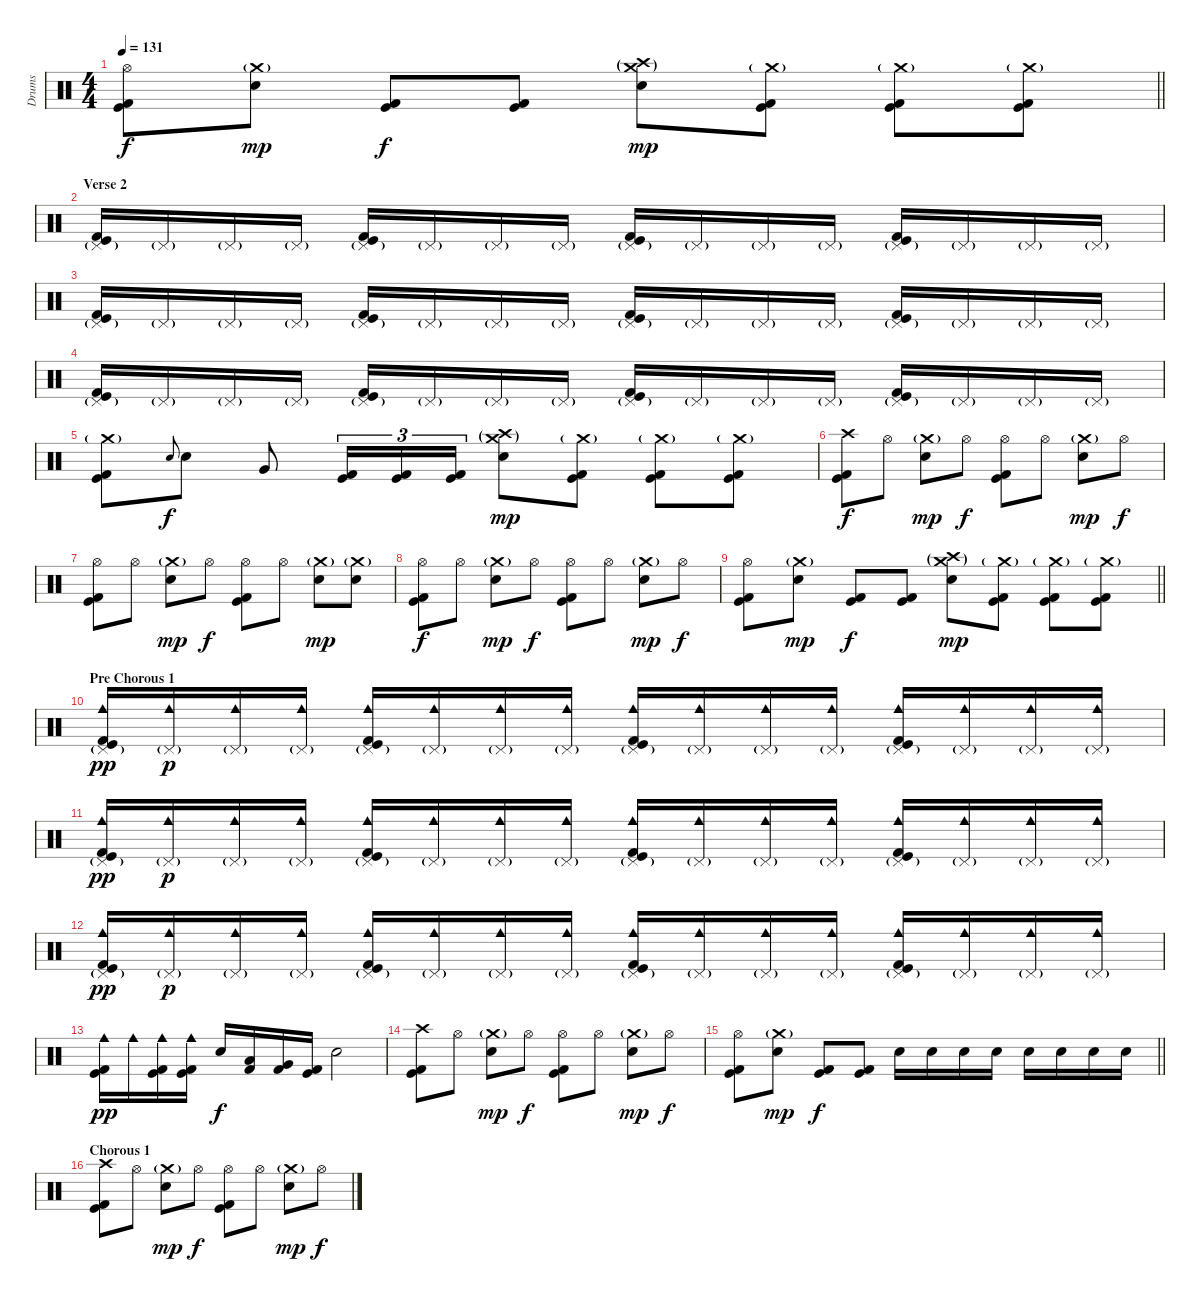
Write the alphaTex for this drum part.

\track ("Drums" "Drums") {instrument percussion}
\staff {score}
\articulation defaults
\ts (4 4)
\tempo 131
\clef neutral
\barLineRight lightlight
\ks c
("Hi-Hat (open)" "Kick (hit)" "Kick (hit) 2").8{dy f} ("Crash medium (hit)"{g} "Electric Snare (hit)").8{dy mp} ("Kick (hit)" "Kick (hit) 2").8{dy f} ("Kick (hit)" "Kick (hit) 2").8 ("Crash medium (hit)"{g} "Crash high (hit)"{g} "Electric Snare (hit)").8{dy mp} ("Crash medium (hit)"{g} "Kick (hit)" "Kick (hit) 2").8 ("Crash medium (hit)"{g} "Kick (hit)" "Kick (hit) 2").8 ("Crash medium (hit)"{g} "Kick (hit)" "Kick (hit) 2").8 |
\section ("" "Verse 2")
("Pedal Hi-Hat (hit)"{g} "Kick (hit)" "Kick (hit) 2").16 "Pedal Hi-Hat (hit)"{g}.16 "Pedal Hi-Hat (hit)"{g}.16 "Pedal Hi-Hat (hit)"{g}.16 ("Pedal Hi-Hat (hit)"{g} "Kick (hit)" "Kick (hit) 2").16 "Pedal Hi-Hat (hit)"{g}.16 "Pedal Hi-Hat (hit)"{g}.16 "Pedal Hi-Hat (hit)"{g}.16 ("Pedal Hi-Hat (hit)"{g} "Kick (hit)" "Kick (hit) 2").16 "Pedal Hi-Hat (hit)"{g}.16 "Pedal Hi-Hat (hit)"{g}.16 "Pedal Hi-Hat (hit)"{g}.16 ("Pedal Hi-Hat (hit)"{g} "Kick (hit)" "Kick (hit) 2").16 "Pedal Hi-Hat (hit)"{g}.16 "Pedal Hi-Hat (hit)"{g}.16 "Pedal Hi-Hat (hit)"{g}.16 |
("Pedal Hi-Hat (hit)"{g} "Kick (hit)" "Kick (hit) 2").16 "Pedal Hi-Hat (hit)"{g}.16 "Pedal Hi-Hat (hit)"{g}.16 "Pedal Hi-Hat (hit)"{g}.16 ("Pedal Hi-Hat (hit)"{g} "Kick (hit)" "Kick (hit) 2").16 "Pedal Hi-Hat (hit)"{g}.16 "Pedal Hi-Hat (hit)"{g}.16 "Pedal Hi-Hat (hit)"{g}.16 ("Pedal Hi-Hat (hit)"{g} "Kick (hit)" "Kick (hit) 2").16 "Pedal Hi-Hat (hit)"{g}.16 "Pedal Hi-Hat (hit)"{g}.16 "Pedal Hi-Hat (hit)"{g}.16 ("Pedal Hi-Hat (hit)"{g} "Kick (hit)" "Kick (hit) 2").16 "Pedal Hi-Hat (hit)"{g}.16 "Pedal Hi-Hat (hit)"{g}.16 "Pedal Hi-Hat (hit)"{g}.16 |
("Pedal Hi-Hat (hit)"{g} "Kick (hit)" "Kick (hit) 2").16 "Pedal Hi-Hat (hit)"{g}.16 "Pedal Hi-Hat (hit)"{g}.16 "Pedal Hi-Hat (hit)"{g}.16 ("Pedal Hi-Hat (hit)"{g} "Kick (hit)" "Kick (hit) 2").16 "Pedal Hi-Hat (hit)"{g}.16 "Pedal Hi-Hat (hit)"{g}.16 "Pedal Hi-Hat (hit)"{g}.16 ("Pedal Hi-Hat (hit)"{g} "Kick (hit)" "Kick (hit) 2").16 "Pedal Hi-Hat (hit)"{g}.16 "Pedal Hi-Hat (hit)"{g}.16 "Pedal Hi-Hat (hit)"{g}.16 ("Pedal Hi-Hat (hit)"{g} "Kick (hit)" "Kick (hit) 2").16 "Pedal Hi-Hat (hit)"{g}.16 "Pedal Hi-Hat (hit)"{g}.16 "Pedal Hi-Hat (hit)"{g}.16 |
("Crash medium (hit)"{g} "Kick (hit)" "Kick (hit) 2").8 "Electric Snare (hit)".8{gr onbeat dy f} "Electric Snare (hit)".8 "Very Low Tom (hit)".8 ("Kick (hit)" "Kick (hit) 2").16{tu (3 2)} ("Kick (hit)" "Kick (hit) 2").16{tu (3 2)} ("Kick (hit)" "Kick (hit) 2").16{tu (3 2)} ("Crash medium (hit)"{g} "Crash high (hit)"{g} "Electric Snare (hit)").8{dy mp} ("Crash medium (hit)"{g} "Kick (hit)" "Kick (hit) 2").8 ("Crash medium (hit)"{g} "Kick (hit)" "Kick (hit) 2").8 ("Crash medium (hit)"{g} "Kick (hit)" "Kick (hit) 2").8 |
("Crash high (hit)" "Kick (hit)" "Kick (hit) 2").8{dy f} "Hi-Hat (open)".8 ("Crash medium (hit)"{g} "Electric Snare (hit)").8{dy mp} "Hi-Hat (open)".8{dy f} ("Hi-Hat (open)" "Kick (hit)" "Kick (hit) 2").8 "Hi-Hat (open)".8 ("Crash medium (hit)"{g} "Electric Snare (hit)").8{dy mp} "Hi-Hat (open)".8{dy f} |
("Hi-Hat (open)" "Kick (hit)" "Kick (hit) 2").8 "Hi-Hat (open)".8 ("Crash medium (hit)"{g} "Electric Snare (hit)").8{dy mp} "Hi-Hat (open)".8{dy f} ("Hi-Hat (open)" "Kick (hit)" "Kick (hit) 2").8 "Hi-Hat (open)".8 ("Crash medium (hit)"{g} "Electric Snare (hit)").8{dy mp} ("Crash medium (hit)"{g} "Electric Snare (hit)").8 |
("Hi-Hat (open)" "Kick (hit)" "Kick (hit) 2").8{dy f} "Hi-Hat (open)".8 ("Crash medium (hit)"{g} "Electric Snare (hit)").8{dy mp} "Hi-Hat (open)".8{dy f} ("Hi-Hat (open)" "Kick (hit)" "Kick (hit) 2").8 "Hi-Hat (open)".8 ("Crash medium (hit)"{g} "Electric Snare (hit)").8{dy mp} "Hi-Hat (open)".8{dy f} |
\barLineRight lightlight
("Hi-Hat (open)" "Kick (hit)" "Kick (hit) 2").8 ("Crash medium (hit)"{g} "Electric Snare (hit)").8{dy mp} ("Kick (hit)" "Kick (hit) 2").8{dy f} ("Kick (hit)" "Kick (hit) 2").8 ("Crash medium (hit)"{g} "Crash high (hit)"{g} "Electric Snare (hit)").8{dy mp} ("Crash medium (hit)"{g} "Kick (hit)" "Kick (hit) 2").8 ("Crash medium (hit)"{g} "Kick (hit)" "Kick (hit) 2").8 ("Crash medium (hit)"{g} "Kick (hit)" "Kick (hit) 2").8 |
\section ("" "Pre Chorous 1")
("Pedal Hi-Hat (hit)"{g} "Kick (hit)" "Kick (hit) 2" "Cowbell medium (hit)").16{dy pp} ("Pedal Hi-Hat (hit)"{g} "Cowbell medium (hit)").16{dy p} ("Pedal Hi-Hat (hit)"{g} "Cowbell medium (hit)").16 ("Pedal Hi-Hat (hit)"{g} "Cowbell medium (hit)").16 ("Pedal Hi-Hat (hit)"{g} "Kick (hit)" "Kick (hit) 2" "Cowbell medium (hit)").16 ("Pedal Hi-Hat (hit)"{g} "Cowbell medium (hit)").16 ("Pedal Hi-Hat (hit)"{g} "Cowbell medium (hit)").16 ("Pedal Hi-Hat (hit)"{g} "Cowbell medium (hit)").16 ("Pedal Hi-Hat (hit)"{g} "Kick (hit)" "Kick (hit) 2" "Cowbell medium (hit)").16 ("Pedal Hi-Hat (hit)"{g} "Cowbell medium (hit)").16 ("Pedal Hi-Hat (hit)"{g} "Cowbell medium (hit)").16 ("Pedal Hi-Hat (hit)"{g} "Cowbell medium (hit)").16 ("Pedal Hi-Hat (hit)"{g} "Kick (hit)" "Kick (hit) 2" "Cowbell medium (hit)").16 ("Pedal Hi-Hat (hit)"{g} "Cowbell medium (hit)").16 ("Pedal Hi-Hat (hit)"{g} "Cowbell medium (hit)").16 ("Pedal Hi-Hat (hit)"{g} "Cowbell medium (hit)").16 |
("Pedal Hi-Hat (hit)"{g} "Kick (hit)" "Kick (hit) 2" "Cowbell medium (hit)").16{dy pp} ("Pedal Hi-Hat (hit)"{g} "Cowbell medium (hit)").16{dy p} ("Pedal Hi-Hat (hit)"{g} "Cowbell medium (hit)").16 ("Pedal Hi-Hat (hit)"{g} "Cowbell medium (hit)").16 ("Pedal Hi-Hat (hit)"{g} "Kick (hit)" "Kick (hit) 2" "Cowbell medium (hit)").16 ("Pedal Hi-Hat (hit)"{g} "Cowbell medium (hit)").16 ("Pedal Hi-Hat (hit)"{g} "Cowbell medium (hit)").16 ("Pedal Hi-Hat (hit)"{g} "Cowbell medium (hit)").16 ("Pedal Hi-Hat (hit)"{g} "Kick (hit)" "Kick (hit) 2" "Cowbell medium (hit)").16 ("Pedal Hi-Hat (hit)"{g} "Cowbell medium (hit)").16 ("Pedal Hi-Hat (hit)"{g} "Cowbell medium (hit)").16 ("Pedal Hi-Hat (hit)"{g} "Cowbell medium (hit)").16 ("Pedal Hi-Hat (hit)"{g} "Kick (hit)" "Kick (hit) 2" "Cowbell medium (hit)").16 ("Pedal Hi-Hat (hit)"{g} "Cowbell medium (hit)").16 ("Pedal Hi-Hat (hit)"{g} "Cowbell medium (hit)").16 ("Pedal Hi-Hat (hit)"{g} "Cowbell medium (hit)").16 |
("Pedal Hi-Hat (hit)"{g} "Kick (hit)" "Kick (hit) 2" "Cowbell medium (hit)").16{dy pp} ("Pedal Hi-Hat (hit)"{g} "Cowbell medium (hit)").16{dy p} ("Pedal Hi-Hat (hit)"{g} "Cowbell medium (hit)").16 ("Pedal Hi-Hat (hit)"{g} "Cowbell medium (hit)").16 ("Pedal Hi-Hat (hit)"{g} "Kick (hit)" "Kick (hit) 2" "Cowbell medium (hit)").16 ("Pedal Hi-Hat (hit)"{g} "Cowbell medium (hit)").16 ("Pedal Hi-Hat (hit)"{g} "Cowbell medium (hit)").16 ("Pedal Hi-Hat (hit)"{g} "Cowbell medium (hit)").16 ("Pedal Hi-Hat (hit)"{g} "Kick (hit)" "Kick (hit) 2" "Cowbell medium (hit)").16 ("Pedal Hi-Hat (hit)"{g} "Cowbell medium (hit)").16 ("Pedal Hi-Hat (hit)"{g} "Cowbell medium (hit)").16 ("Pedal Hi-Hat (hit)"{g} "Cowbell medium (hit)").16 ("Pedal Hi-Hat (hit)"{g} "Kick (hit)" "Kick (hit) 2" "Cowbell medium (hit)").16 ("Pedal Hi-Hat (hit)"{g} "Cowbell medium (hit)").16 ("Pedal Hi-Hat (hit)"{g} "Cowbell medium (hit)").16 ("Pedal Hi-Hat (hit)"{g} "Cowbell medium (hit)").16 |
("Kick (hit)" "Kick (hit) 2" "Cowbell medium (hit)").16{dy pp} "Cowbell medium (hit)".16 ("Kick (hit)" "Kick (hit) 2" "Cowbell medium (hit)").16 ("Kick (hit)" "Kick (hit) 2" "Cowbell medium (hit)").16 "Electric Snare (hit)".16{dy f} ("Kick (hit) 2" "Low Tom (hit)").16 ("Kick (hit) 2" "Very Low Tom (hit)").16 ("Kick (hit)" "Kick (hit) 2").16 "Electric Snare (hit)".2 |
("Crash high (hit)" "Kick (hit)" "Kick (hit) 2").8 "Hi-Hat (open)".8 ("Crash medium (hit)"{g} "Electric Snare (hit)").8{dy mp} "Hi-Hat (open)".8{dy f} ("Hi-Hat (open)" "Kick (hit)" "Kick (hit) 2").8 "Hi-Hat (open)".8 ("Crash medium (hit)"{g} "Electric Snare (hit)").8{dy mp} "Hi-Hat (open)".8{dy f} |
\barLineRight lightlight
("Hi-Hat (open)" "Kick (hit)" "Kick (hit) 2").8 ("Crash medium (hit)"{g} "Electric Snare (hit)").8{dy mp} ("Kick (hit)" "Kick (hit) 2").8{dy f} ("Kick (hit)" "Kick (hit) 2").8 "Electric Snare (hit)".16 "Electric Snare (hit)".16 "Electric Snare (hit)".16 "Electric Snare (hit)".16 "Electric Snare (hit)".16 "Electric Snare (hit)".16 "Electric Snare (hit)".16 "Electric Snare (hit)".16 |
\section ("" "Chorous 1")
("Crash high (hit)" "Kick (hit)" "Kick (hit) 2").8 "Hi-Hat (open)".8 ("Crash medium (hit)"{g} "Electric Snare (hit)").8{dy mp} "Hi-Hat (open)".8{dy f} ("Hi-Hat (open)" "Kick (hit)" "Kick (hit) 2").8 "Hi-Hat (open)".8 ("Crash medium (hit)"{g} "Electric Snare (hit)").8{dy mp} "Hi-Hat (open)".8{dy f}
